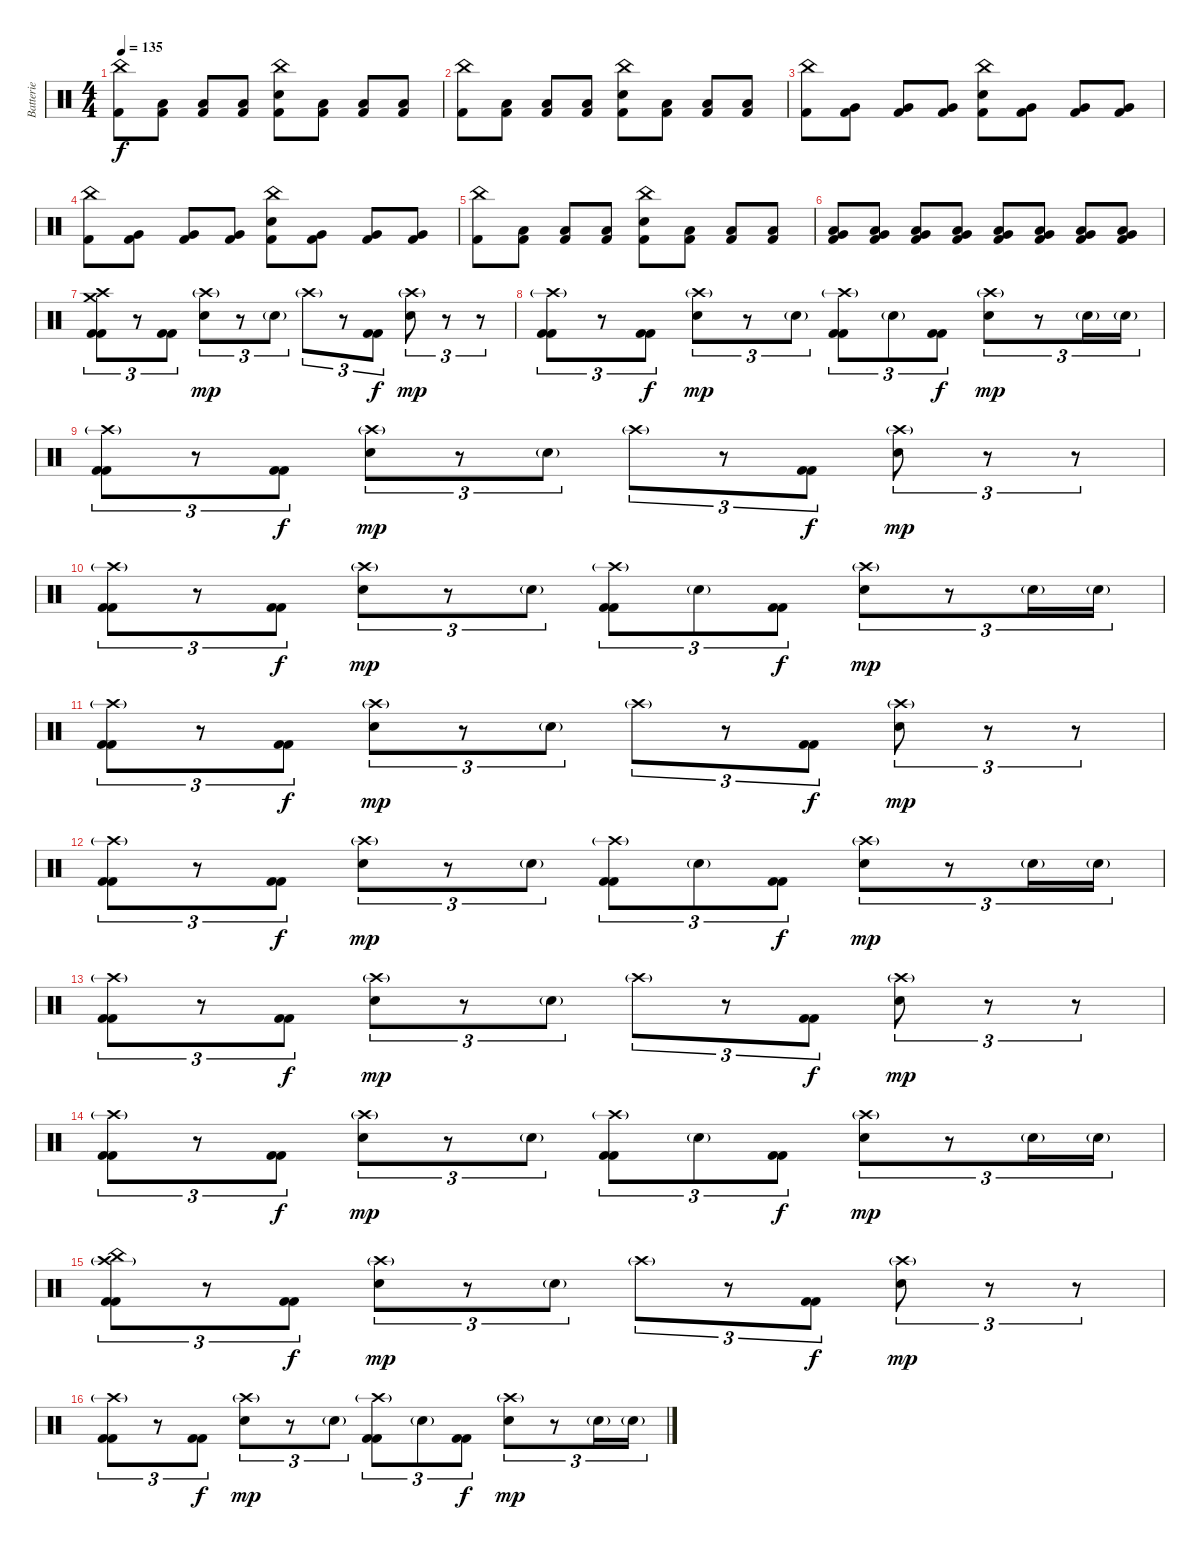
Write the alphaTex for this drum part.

\track ("Batterie" "Batterie") {instrument percussion}
\staff {score}
\articulation defaults
\ts (4 4)
\tempo 135
\clef neutral
\ks c
("China (hit)" "Kick (hit) 2").8{dy f} ("Low Floor Tom (hit)" "Kick (hit) 2").8 ("Low Floor Tom (hit)" "Kick (hit) 2").8 ("Low Floor Tom (hit)" "Kick (hit) 2").8 ("China (hit)" "Electric Snare (hit)" "Kick (hit) 2").8 ("Low Floor Tom (hit)" "Kick (hit) 2").8 ("Low Floor Tom (hit)" "Kick (hit) 2").8 ("Low Floor Tom (hit)" "Kick (hit) 2").8 |
("China (hit)" "Kick (hit) 2").8 ("Low Floor Tom (hit)" "Kick (hit) 2").8 ("Low Floor Tom (hit)" "Kick (hit) 2").8 ("Low Floor Tom (hit)" "Kick (hit) 2").8 ("China (hit)" "Electric Snare (hit)" "Kick (hit) 2").8 ("Low Floor Tom (hit)" "Kick (hit) 2").8 ("Low Floor Tom (hit)" "Kick (hit) 2").8 ("Low Floor Tom (hit)" "Kick (hit) 2").8 |
("China (hit)" "Kick (hit) 2").8 ("Very Low Tom (hit)" "Kick (hit) 2").8 ("Very Low Tom (hit)" "Kick (hit) 2").8 ("Very Low Tom (hit)" "Kick (hit) 2").8 ("China (hit)" "Electric Snare (hit)" "Kick (hit) 2").8 ("Very Low Tom (hit)" "Kick (hit) 2").8 ("Very Low Tom (hit)" "Kick (hit) 2").8 ("Very Low Tom (hit)" "Kick (hit) 2").8 |
("China (hit)" "Kick (hit) 2").8 ("Very Low Tom (hit)" "Kick (hit) 2").8 ("Very Low Tom (hit)" "Kick (hit) 2").8 ("Very Low Tom (hit)" "Kick (hit) 2").8 ("China (hit)" "Electric Snare (hit)" "Kick (hit) 2").8 ("Very Low Tom (hit)" "Kick (hit) 2").8 ("Very Low Tom (hit)" "Kick (hit) 2").8 ("Very Low Tom (hit)" "Kick (hit) 2").8 |
("China (hit)" "Kick (hit) 2").8 ("Low Floor Tom (hit)" "Kick (hit) 2").8 ("Low Floor Tom (hit)" "Kick (hit) 2").8 ("Low Floor Tom (hit)" "Kick (hit) 2").8 ("China (hit)" "Electric Snare (hit)" "Kick (hit) 2").8 ("Low Floor Tom (hit)" "Kick (hit) 2").8 ("Low Floor Tom (hit)" "Kick (hit) 2").8 ("Low Floor Tom (hit)" "Kick (hit) 2").8 |
("Very Low Tom (hit)" "Low Floor Tom (hit)" "Kick (hit) 2").8 ("Very Low Tom (hit)" "Low Floor Tom (hit)" "Kick (hit) 2").8 ("Very Low Tom (hit)" "Low Floor Tom (hit)" "Kick (hit) 2").8 ("Very Low Tom (hit)" "Low Floor Tom (hit)" "Kick (hit) 2").8 ("Very Low Tom (hit)" "Low Floor Tom (hit)" "Kick (hit) 2").8 ("Very Low Tom (hit)" "Low Floor Tom (hit)" "Kick (hit) 2").8 ("Very Low Tom (hit)" "Low Floor Tom (hit)" "Kick (hit) 2").8 ("Very Low Tom (hit)" "Low Floor Tom (hit)" "Kick (hit) 2").8 |
("Crash high (hit)" "Crash medium (hit)" "Kick (hit) 2" "Kick (hit) 2").8{tu (3 2)} r.8{tu (3 2)} ("Kick (hit) 2" "Kick (hit) 2").8{tu (3 2)} ("Crash high (hit)"{g} "Electric Snare (hit)").8{tu (3 2) dy mp} r.8{tu (3 2)} "Electric Snare (hit)"{g}.8{tu (3 2)} "Crash high (hit)"{g}.8{tu (3 2)} r.8{tu (3 2)} ("Kick (hit) 2" "Kick (hit) 2").8{tu (3 2) dy f} ("Crash high (hit)"{g} "Electric Snare (hit)").8{tu (3 2) dy mp} r.8{tu (3 2)} r.8{tu (3 2)} |
("Crash high (hit)"{g} "Kick (hit) 2" "Kick (hit) 2").8{tu (3 2)} r.8{tu (3 2)} ("Kick (hit) 2" "Kick (hit) 2").8{tu (3 2) dy f} ("Crash high (hit)"{g} "Electric Snare (hit)").8{tu (3 2) dy mp} r.8{tu (3 2)} "Electric Snare (hit)"{g}.8{tu (3 2)} ("Crash high (hit)"{g} "Kick (hit) 2" "Kick (hit) 2").8{tu (3 2)} "Electric Snare (hit)"{g}.8{tu (3 2)} ("Kick (hit) 2" "Kick (hit) 2").8{tu (3 2) dy f} ("Crash high (hit)"{g} "Electric Snare (hit)").8{tu (3 2) dy mp} r.8{tu (3 2)} "Electric Snare (hit)"{g}.16{tu (3 2)} "Electric Snare (hit)"{g}.16{tu (3 2)} |
("Crash high (hit)"{g} "Kick (hit) 2" "Kick (hit) 2").8{tu (3 2)} r.8{tu (3 2)} ("Kick (hit) 2" "Kick (hit) 2").8{tu (3 2) dy f} ("Crash high (hit)"{g} "Electric Snare (hit)").8{tu (3 2) dy mp} r.8{tu (3 2)} "Electric Snare (hit)"{g}.8{tu (3 2)} "Crash high (hit)"{g}.8{tu (3 2)} r.8{tu (3 2)} ("Kick (hit) 2" "Kick (hit) 2").8{tu (3 2) dy f} ("Crash high (hit)"{g} "Electric Snare (hit)").8{tu (3 2) dy mp} r.8{tu (3 2)} r.8{tu (3 2)} |
("Crash high (hit)"{g} "Kick (hit) 2" "Kick (hit) 2").8{tu (3 2)} r.8{tu (3 2)} ("Kick (hit) 2" "Kick (hit) 2").8{tu (3 2) dy f} ("Crash high (hit)"{g} "Electric Snare (hit)").8{tu (3 2) dy mp} r.8{tu (3 2)} "Electric Snare (hit)"{g}.8{tu (3 2)} ("Crash high (hit)"{g} "Kick (hit) 2" "Kick (hit) 2").8{tu (3 2)} "Electric Snare (hit)"{g}.8{tu (3 2)} ("Kick (hit) 2" "Kick (hit) 2").8{tu (3 2) dy f} ("Crash high (hit)"{g} "Electric Snare (hit)").8{tu (3 2) dy mp} r.8{tu (3 2)} "Electric Snare (hit)"{g}.16{tu (3 2)} "Electric Snare (hit)"{g}.16{tu (3 2)} |
("Crash high (hit)"{g} "Kick (hit) 2" "Kick (hit) 2").8{tu (3 2)} r.8{tu (3 2)} ("Kick (hit) 2" "Kick (hit) 2").8{tu (3 2) dy f} ("Crash high (hit)"{g} "Electric Snare (hit)").8{tu (3 2) dy mp} r.8{tu (3 2)} "Electric Snare (hit)"{g}.8{tu (3 2)} "Crash high (hit)"{g}.8{tu (3 2)} r.8{tu (3 2)} ("Kick (hit) 2" "Kick (hit) 2").8{tu (3 2) dy f} ("Crash high (hit)"{g} "Electric Snare (hit)").8{tu (3 2) dy mp} r.8{tu (3 2)} r.8{tu (3 2)} |
("Crash high (hit)"{g} "Kick (hit) 2" "Kick (hit) 2").8{tu (3 2)} r.8{tu (3 2)} ("Kick (hit) 2" "Kick (hit) 2").8{tu (3 2) dy f} ("Crash high (hit)"{g} "Electric Snare (hit)").8{tu (3 2) dy mp} r.8{tu (3 2)} "Electric Snare (hit)"{g}.8{tu (3 2)} ("Crash high (hit)"{g} "Kick (hit) 2" "Kick (hit) 2").8{tu (3 2)} "Electric Snare (hit)"{g}.8{tu (3 2)} ("Kick (hit) 2" "Kick (hit) 2").8{tu (3 2) dy f} ("Crash high (hit)"{g} "Electric Snare (hit)").8{tu (3 2) dy mp} r.8{tu (3 2)} "Electric Snare (hit)"{g}.16{tu (3 2)} "Electric Snare (hit)"{g}.16{tu (3 2)} |
("Crash high (hit)"{g} "Kick (hit) 2" "Kick (hit) 2").8{tu (3 2)} r.8{tu (3 2)} ("Kick (hit) 2" "Kick (hit) 2").8{tu (3 2) dy f} ("Crash high (hit)"{g} "Electric Snare (hit)").8{tu (3 2) dy mp} r.8{tu (3 2)} "Electric Snare (hit)"{g}.8{tu (3 2)} "Crash high (hit)"{g}.8{tu (3 2)} r.8{tu (3 2)} ("Kick (hit) 2" "Kick (hit) 2").8{tu (3 2) dy f} ("Crash high (hit)"{g} "Electric Snare (hit)").8{tu (3 2) dy mp} r.8{tu (3 2)} r.8{tu (3 2)} |
("Crash high (hit)"{g} "Kick (hit) 2" "Kick (hit) 2").8{tu (3 2)} r.8{tu (3 2)} ("Kick (hit) 2" "Kick (hit) 2").8{tu (3 2) dy f} ("Crash high (hit)"{g} "Electric Snare (hit)").8{tu (3 2) dy mp} r.8{tu (3 2)} "Electric Snare (hit)"{g}.8{tu (3 2)} ("Crash high (hit)"{g} "Kick (hit) 2" "Kick (hit) 2").8{tu (3 2)} "Electric Snare (hit)"{g}.8{tu (3 2)} ("Kick (hit) 2" "Kick (hit) 2").8{tu (3 2) dy f} ("Crash high (hit)"{g} "Electric Snare (hit)").8{tu (3 2) dy mp} r.8{tu (3 2)} "Electric Snare (hit)"{g}.16{tu (3 2)} "Electric Snare (hit)"{g}.16{tu (3 2)} |
("China (hit)" "Crash high (hit)"{g} "Kick (hit) 2" "Kick (hit) 2").8{tu (3 2)} r.8{tu (3 2)} ("Kick (hit) 2" "Kick (hit) 2").8{tu (3 2) dy f} ("Crash high (hit)"{g} "Electric Snare (hit)").8{tu (3 2) dy mp} r.8{tu (3 2)} "Electric Snare (hit)"{g}.8{tu (3 2)} "Crash high (hit)"{g}.8{tu (3 2)} r.8{tu (3 2)} ("Kick (hit) 2" "Kick (hit) 2").8{tu (3 2) dy f} ("Crash high (hit)"{g} "Electric Snare (hit)").8{tu (3 2) dy mp} r.8{tu (3 2)} r.8{tu (3 2)} |
("Crash high (hit)"{g} "Kick (hit) 2" "Kick (hit) 2").8{tu (3 2)} r.8{tu (3 2)} ("Kick (hit) 2" "Kick (hit) 2").8{tu (3 2) dy f} ("Crash high (hit)"{g} "Electric Snare (hit)").8{tu (3 2) dy mp} r.8{tu (3 2)} "Electric Snare (hit)"{g}.8{tu (3 2)} ("Crash high (hit)"{g} "Kick (hit) 2" "Kick (hit) 2").8{tu (3 2)} "Electric Snare (hit)"{g}.8{tu (3 2)} ("Kick (hit) 2" "Kick (hit) 2").8{tu (3 2) dy f} ("Crash high (hit)"{g} "Electric Snare (hit)").8{tu (3 2) dy mp} r.8{tu (3 2)} "Electric Snare (hit)"{g}.16{tu (3 2)} "Electric Snare (hit)"{g}.16{tu (3 2)}
